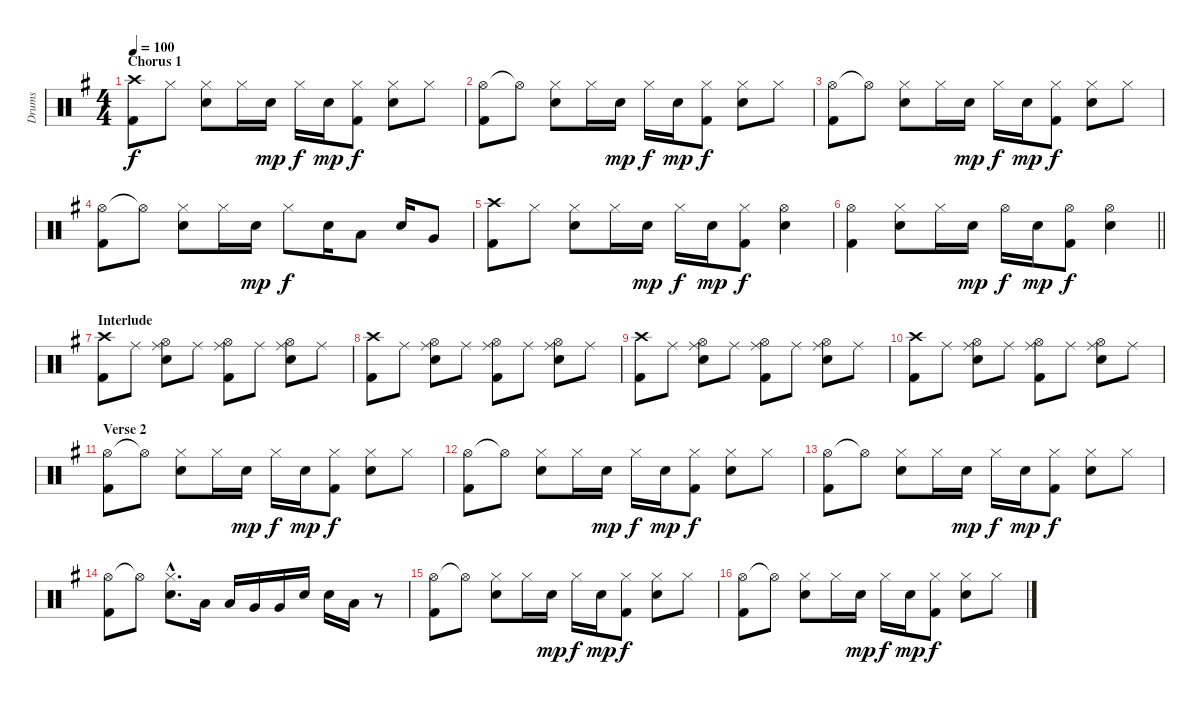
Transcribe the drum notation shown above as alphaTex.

\track ("Drums" "Drums") {instrument percussion}
\staff {score}
\articulation defaults
\ts (4 4)
\section ("" "Chorus 1")
\tempo 100
\clef neutral
\ks g
("Crash high (hit)" "Kick (hit) 2").8{dy f} "Hi-Hat (closed)".8 ("Hi-Hat (closed)" "Snare (hit) 2").8 "Hi-Hat (closed)".16 "Snare (hit) 2".16{dy mp} "Hi-Hat (closed)".16{dy f} "Snare (hit) 2".16{dy mp} ("Hi-Hat (closed)" "Kick (hit) 2").8{dy f} ("Hi-Hat (closed)" "Snare (hit) 2").8 "Hi-Hat (closed)".8 |
("Hi-Hat (open)" "Kick (hit) 2").8 "Hi-Hat (open)"{t}.8 ("Hi-Hat (closed)" "Snare (hit) 2").8 "Hi-Hat (closed)".16 "Snare (hit) 2".16{dy mp} "Hi-Hat (closed)".16{dy f} "Snare (hit) 2".16{dy mp} ("Hi-Hat (closed)" "Kick (hit) 2").8{dy f} ("Hi-Hat (closed)" "Snare (hit) 2").8 "Hi-Hat (closed)".8 |
("Hi-Hat (open)" "Kick (hit) 2").8 "Hi-Hat (open)"{t}.8 ("Hi-Hat (closed)" "Snare (hit) 2").8 "Hi-Hat (closed)".16 "Snare (hit) 2".16{dy mp} "Hi-Hat (closed)".16{dy f} "Snare (hit) 2".16{dy mp} ("Hi-Hat (closed)" "Kick (hit) 2").8{dy f} ("Hi-Hat (closed)" "Snare (hit) 2").8 "Hi-Hat (closed)".8 |
("Hi-Hat (open)" "Kick (hit) 2").8 "Hi-Hat (open)"{t}.8 ("Hi-Hat (closed)" "Snare (hit) 2").8 "Hi-Hat (closed)".16 "Snare (hit) 2".16{dy mp} "Hi-Hat (closed)".8{dy f} "Snare (hit) 2".16 "Low Tom (hit)".8 "Snare (hit) 2".16 "Very Low Tom (hit)".8 |
("Crash high (hit)" "Kick (hit) 2").8 "Hi-Hat (closed)".8 ("Hi-Hat (closed)" "Snare (hit) 2").8 "Hi-Hat (closed)".16 "Snare (hit) 2".16{dy mp} "Hi-Hat (closed)".16{dy f} "Snare (hit) 2".16{dy mp} ("Hi-Hat (closed)" "Kick (hit) 2").8{dy f} ("Hi-Hat (open)" "Snare (hit) 2").4 |
\barLineRight lightlight
("Hi-Hat (open)" "Kick (hit) 2").4 ("Hi-Hat (closed)" "Snare (hit) 2").8 "Hi-Hat (closed)".16 "Snare (hit) 2".16{dy mp} "Hi-Hat (open)".16{dy f} "Snare (hit) 2".16{dy mp} ("Hi-Hat (open)" "Kick (hit) 2").8{dy f} ("Hi-Hat (open)" "Snare (hit) 2").4 |
\section ("" "Interlude")
("Crash high (hit)" "Kick (hit) 2").8 "Ride (middle)".8 ("Hi-Hat (open)" "Ride (middle)" "Snare (hit) 2").8 "Ride (middle)".8 ("Hi-Hat (open)" "Ride (middle)" "Kick (hit) 2").8 "Ride (middle)".8 ("Hi-Hat (open)" "Ride (middle)" "Snare (hit) 2").8 "Ride (middle)".8 |
("Crash high (hit)" "Kick (hit) 2").8 "Ride (middle)".8 ("Hi-Hat (open)" "Ride (middle)" "Snare (hit) 2").8 "Ride (middle)".8 ("Hi-Hat (open)" "Ride (middle)" "Kick (hit) 2").8 "Ride (middle)".8 ("Hi-Hat (open)" "Ride (middle)" "Snare (hit) 2").8 "Ride (middle)".8 |
("Crash high (hit)" "Kick (hit) 2").8 "Ride (middle)".8 ("Hi-Hat (open)" "Ride (middle)" "Snare (hit) 2").8 "Ride (middle)".8 ("Hi-Hat (open)" "Ride (middle)" "Kick (hit) 2").8 "Ride (middle)".8 ("Hi-Hat (open)" "Ride (middle)" "Snare (hit) 2").8 "Ride (middle)".8 |
("Crash high (hit)" "Kick (hit) 2").8 "Ride (middle)".8 ("Hi-Hat (open)" "Ride (middle)" "Snare (hit) 2").8 "Ride (middle)".8 ("Hi-Hat (open)" "Ride (middle)" "Kick (hit) 2").8 "Ride (middle)".8 ("Hi-Hat (open)" "Ride (middle)" "Snare (hit) 2").8 "Ride (middle)".8 |
\section ("" "Verse 2")
("Hi-Hat (open)" "Kick (hit) 2").8 "Hi-Hat (open)"{t}.8 ("Hi-Hat (closed)" "Snare (hit) 2").8 "Hi-Hat (closed)".16 "Snare (hit) 2".16{dy mp} "Hi-Hat (closed)".16{dy f} "Snare (hit) 2".16{dy mp} ("Hi-Hat (closed)" "Kick (hit) 2").8{dy f} ("Hi-Hat (closed)" "Snare (hit) 2").8 "Hi-Hat (closed)".8 |
("Hi-Hat (open)" "Kick (hit) 2").8 "Hi-Hat (open)"{t}.8 ("Hi-Hat (closed)" "Snare (hit) 2").8 "Hi-Hat (closed)".16 "Snare (hit) 2".16{dy mp} "Hi-Hat (closed)".16{dy f} "Snare (hit) 2".16{dy mp} ("Hi-Hat (closed)" "Kick (hit) 2").8{dy f} ("Hi-Hat (closed)" "Snare (hit) 2").8 "Hi-Hat (closed)".8 |
("Hi-Hat (open)" "Kick (hit) 2").8 "Hi-Hat (open)"{t}.8 ("Hi-Hat (closed)" "Snare (hit) 2").8 "Hi-Hat (closed)".16 "Snare (hit) 2".16{dy mp} "Hi-Hat (closed)".16{dy f} "Snare (hit) 2".16{dy mp} ("Hi-Hat (closed)" "Kick (hit) 2").8{dy f} ("Hi-Hat (closed)" "Snare (hit) 2").8 "Hi-Hat (closed)".8 |
("Hi-Hat (open)" "Kick (hit) 2").8 "Hi-Hat (open)"{t}.8 ("Hi-Hat (closed)"{hac} "Snare (hit) 2"{hac}).8{d} "Low Tom (hit)".16 "Low Tom (hit)".16 "Very Low Tom (hit)".16 "Very Low Tom (hit)".16 "Snare (hit) 2".16 "Snare (hit) 2".16 "Low Tom (hit)".16 r.8 |
("Hi-Hat (open)" "Kick (hit) 2").8 "Hi-Hat (open)"{t}.8 ("Hi-Hat (closed)" "Snare (hit) 2").8 "Hi-Hat (closed)".16 "Snare (hit) 2".16{dy mp} "Hi-Hat (closed)".16{dy f} "Snare (hit) 2".16{dy mp} ("Hi-Hat (closed)" "Kick (hit) 2").8{dy f} ("Hi-Hat (closed)" "Snare (hit) 2").8 "Hi-Hat (closed)".8 |
("Hi-Hat (open)" "Kick (hit) 2").8 "Hi-Hat (open)"{t}.8 ("Hi-Hat (closed)" "Snare (hit) 2").8 "Hi-Hat (closed)".16 "Snare (hit) 2".16{dy mp} "Hi-Hat (closed)".16{dy f} "Snare (hit) 2".16{dy mp} ("Hi-Hat (closed)" "Kick (hit) 2").8{dy f} ("Hi-Hat (closed)" "Snare (hit) 2").8 "Hi-Hat (closed)".8
